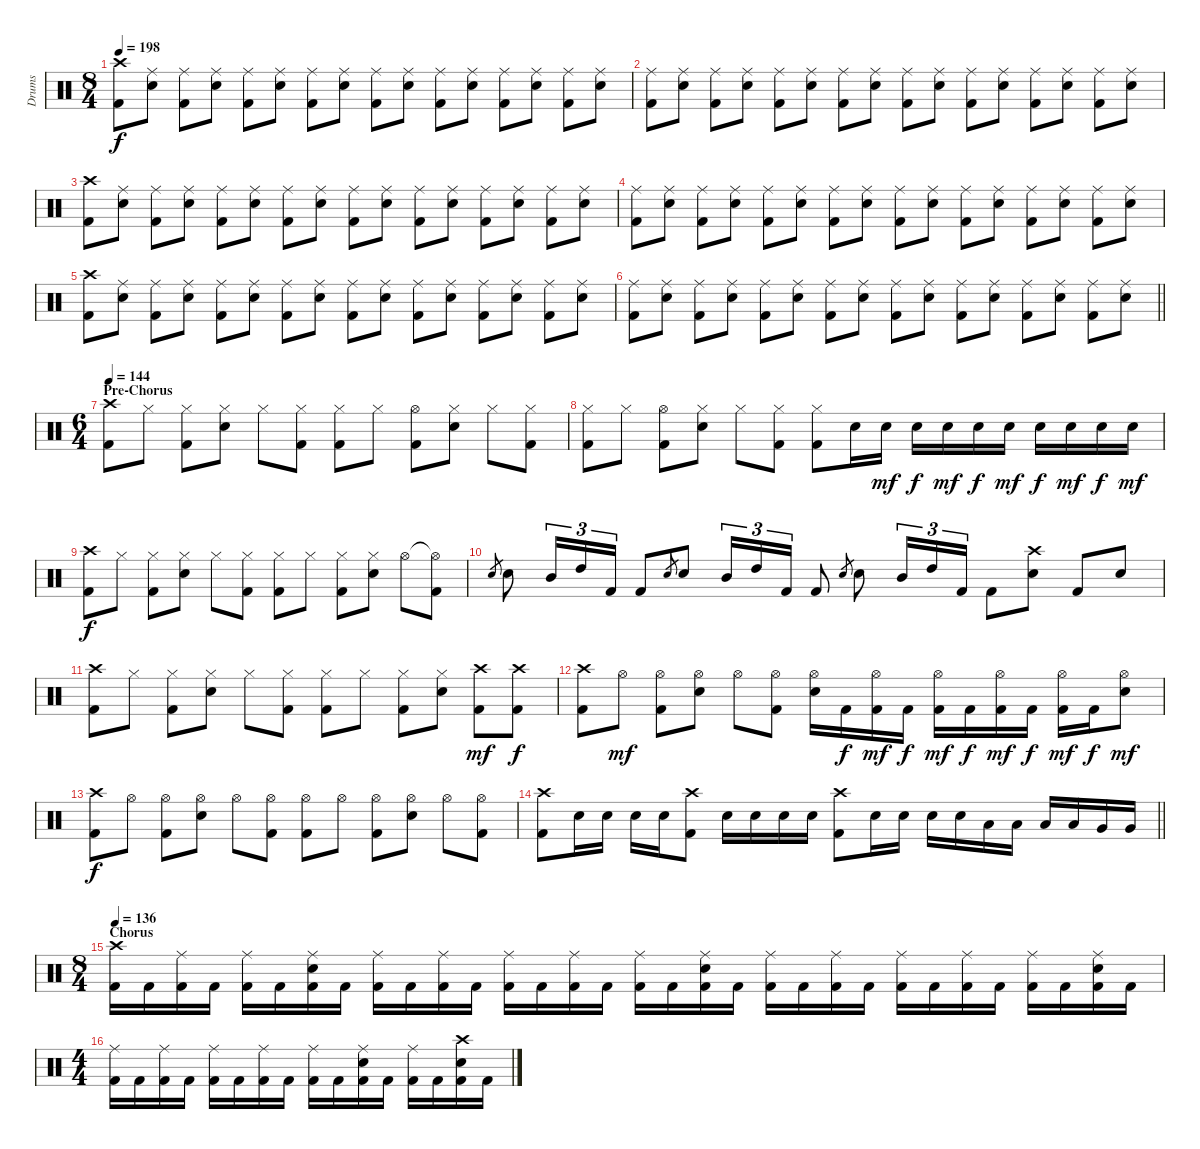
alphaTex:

\track ("Drums" "Drums") {instrument percussion}
\staff {score}
\articulation defaults
\ts (8 4)
\tempo 198
\clef neutral
\ks c
("Crash high (hit)" "Kick (hit) 2").8{dy f} ("Ride (middle)" "Snare (hit) 2").8 ("Ride (middle)" "Kick (hit) 2").8 ("Ride (middle)" "Snare (hit) 2").8 ("Ride (middle)" "Kick (hit) 2").8 ("Ride (middle)" "Snare (hit) 2").8 ("Ride (middle)" "Kick (hit) 2").8 ("Ride (middle)" "Snare (hit) 2").8 ("Ride (middle)" "Kick (hit) 2").8 ("Ride (middle)" "Snare (hit) 2").8 ("Ride (middle)" "Kick (hit) 2").8 ("Ride (middle)" "Snare (hit) 2").8 ("Ride (middle)" "Kick (hit) 2").8 ("Ride (middle)" "Snare (hit) 2").8 ("Ride (middle)" "Kick (hit) 2").8 ("Ride (middle)" "Snare (hit) 2").8 |
("Ride (middle)" "Kick (hit) 2").8 ("Ride (middle)" "Snare (hit) 2").8 ("Ride (middle)" "Kick (hit) 2").8 ("Ride (middle)" "Snare (hit) 2").8 ("Ride (middle)" "Kick (hit) 2").8 ("Ride (middle)" "Snare (hit) 2").8 ("Ride (middle)" "Kick (hit) 2").8 ("Ride (middle)" "Snare (hit) 2").8 ("Ride (middle)" "Kick (hit) 2").8 ("Ride (middle)" "Snare (hit) 2").8 ("Ride (middle)" "Kick (hit) 2").8 ("Ride (middle)" "Snare (hit) 2").8 ("Ride (middle)" "Kick (hit) 2").8 ("Ride (middle)" "Snare (hit) 2").8 ("Ride (middle)" "Kick (hit) 2").8 ("Ride (middle)" "Snare (hit) 2").8 |
("Crash high (hit)" "Kick (hit) 2").8 ("Ride (middle)" "Snare (hit) 2").8 ("Ride (middle)" "Kick (hit) 2").8 ("Ride (middle)" "Snare (hit) 2").8 ("Ride (middle)" "Kick (hit) 2").8 ("Ride (middle)" "Snare (hit) 2").8 ("Ride (middle)" "Kick (hit) 2").8 ("Ride (middle)" "Snare (hit) 2").8 ("Ride (middle)" "Kick (hit) 2").8 ("Ride (middle)" "Snare (hit) 2").8 ("Ride (middle)" "Kick (hit) 2").8 ("Ride (middle)" "Snare (hit) 2").8 ("Ride (middle)" "Kick (hit) 2").8 ("Ride (middle)" "Snare (hit) 2").8 ("Ride (middle)" "Kick (hit) 2").8 ("Ride (middle)" "Snare (hit) 2").8 |
("Ride (middle)" "Kick (hit) 2").8 ("Ride (middle)" "Snare (hit) 2").8 ("Ride (middle)" "Kick (hit) 2").8 ("Ride (middle)" "Snare (hit) 2").8 ("Ride (middle)" "Kick (hit) 2").8 ("Ride (middle)" "Snare (hit) 2").8 ("Ride (middle)" "Kick (hit) 2").8 ("Ride (middle)" "Snare (hit) 2").8 ("Ride (middle)" "Kick (hit) 2").8 ("Ride (middle)" "Snare (hit) 2").8 ("Ride (middle)" "Kick (hit) 2").8 ("Ride (middle)" "Snare (hit) 2").8 ("Ride (middle)" "Kick (hit) 2").8 ("Ride (middle)" "Snare (hit) 2").8 ("Ride (middle)" "Kick (hit) 2").8 ("Ride (middle)" "Snare (hit) 2").8 |
("Crash high (hit)" "Kick (hit) 2").8 ("Ride (middle)" "Snare (hit) 2").8 ("Ride (middle)" "Kick (hit) 2").8 ("Ride (middle)" "Snare (hit) 2").8 ("Ride (middle)" "Kick (hit) 2").8 ("Ride (middle)" "Snare (hit) 2").8 ("Ride (middle)" "Kick (hit) 2").8 ("Ride (middle)" "Snare (hit) 2").8 ("Ride (middle)" "Kick (hit) 2").8 ("Ride (middle)" "Snare (hit) 2").8 ("Ride (middle)" "Kick (hit) 2").8 ("Ride (middle)" "Snare (hit) 2").8 ("Ride (middle)" "Kick (hit) 2").8 ("Ride (middle)" "Snare (hit) 2").8 ("Ride (middle)" "Kick (hit) 2").8 ("Ride (middle)" "Snare (hit) 2").8 |
\barLineRight lightlight
("Ride (middle)" "Kick (hit) 2").8 ("Ride (middle)" "Snare (hit) 2").8 ("Ride (middle)" "Kick (hit) 2").8 ("Ride (middle)" "Snare (hit) 2").8 ("Ride (middle)" "Kick (hit) 2").8 ("Ride (middle)" "Snare (hit) 2").8 ("Ride (middle)" "Kick (hit) 2").8 ("Ride (middle)" "Snare (hit) 2").8 ("Ride (middle)" "Kick (hit) 2").8 ("Ride (middle)" "Snare (hit) 2").8 ("Ride (middle)" "Kick (hit) 2").8 ("Ride (middle)" "Snare (hit) 2").8 ("Ride (middle)" "Kick (hit) 2").8 ("Ride (middle)" "Snare (hit) 2").8 ("Ride (middle)" "Kick (hit) 2").8 ("Ride (middle)" "Snare (hit) 2").8 |
\ts (6 4)
\section ("" "Pre-Chorus")
\tempo 144
("Crash high (hit)" "Kick (hit) 2").8 "Hi-Hat (closed)".8 ("Hi-Hat (closed)" "Kick (hit) 2").8 ("Hi-Hat (closed)" "Snare (hit) 2").8 "Hi-Hat (closed)".8 ("Hi-Hat (closed)" "Kick (hit) 2").8 ("Hi-Hat (closed)" "Kick (hit) 2").8 "Hi-Hat (closed)".8 ("Hi-Hat (open)" "Kick (hit) 2").8 ("Hi-Hat (closed)" "Snare (hit) 2").8 "Hi-Hat (closed)".8 ("Hi-Hat (closed)" "Kick (hit) 2").8 |
("Hi-Hat (closed)" "Kick (hit) 2").8 "Hi-Hat (closed)".8 ("Hi-Hat (open)" "Kick (hit) 2").8 ("Hi-Hat (closed)" "Snare (hit) 2").8 "Hi-Hat (closed)".8 ("Hi-Hat (closed)" "Kick (hit) 2").8 ("Hi-Hat (closed)" "Kick (hit) 2").8 "Snare (hit) 2".16 "Snare (hit) 2".16{dy mf} "Snare (hit) 2".16{dy f} "Snare (hit) 2".16{dy mf} "Snare (hit) 2".16{dy f} "Snare (hit) 2".16{dy mf} "Snare (hit) 2".16{dy f} "Snare (hit) 2".16{dy mf} "Snare (hit) 2".16{dy f} "Snare (hit) 2".16{dy mf} |
("Crash high (hit)" "Kick (hit) 2").8{dy f} "Hi-Hat (closed)".8 ("Hi-Hat (closed)" "Kick (hit) 2").8 ("Hi-Hat (closed)" "Snare (hit) 2").8 "Hi-Hat (closed)".8 ("Hi-Hat (closed)" "Kick (hit) 2").8 ("Hi-Hat (closed)" "Kick (hit) 2").8 "Hi-Hat (closed)".8 ("Hi-Hat (closed)" "Kick (hit) 2").8 ("Hi-Hat (closed)" "Snare (hit) 2").8 "Hi-Hat (open)".8 ("Hi-Hat (open)"{t} "Kick (hit) 2").8 |
"Snare (hit) 2".8{gr} "Snare (hit) 2".8 "Mid Tom (hit)".16{tu (3 2)} "High Tom (hit)".16{tu (3 2)} "Kick (hit) 2".16{tu (3 2)} "Kick (hit) 2".8 "Snare (hit) 2".8{gr} "Snare (hit) 2".8 "Mid Tom (hit)".16{tu (3 2)} "High Tom (hit)".16{tu (3 2)} "Kick (hit) 2".16{tu (3 2)} "Kick (hit) 2".8 "Snare (hit) 2".8{gr} "Snare (hit) 2".8 "Mid Tom (hit)".16{tu (3 2)} "High Tom (hit)".16{tu (3 2)} "Kick (hit) 2".16{tu (3 2)} "Kick (hit) 2".8 ("Crash high (hit)" "Snare (hit) 2").8 "Kick (hit) 2".8 "Snare (hit) 2".8 |
("Crash high (hit)" "Kick (hit) 2").8 "Hi-Hat (closed)".8 ("Hi-Hat (closed)" "Kick (hit) 2").8 ("Hi-Hat (closed)" "Snare (hit) 2").8 "Hi-Hat (closed)".8 ("Hi-Hat (closed)" "Kick (hit) 2").8 ("Hi-Hat (closed)" "Kick (hit) 2").8 "Hi-Hat (closed)".8 ("Hi-Hat (closed)" "Kick (hit) 2").8 ("Hi-Hat (closed)" "Snare (hit) 2").8 ("Crash high (hit)" "Kick (hit) 2").8{dy mf} ("Crash high (hit)" "Kick (hit) 2").8{dy f} |
("Crash high (hit)" "Kick (hit) 2").8 "Hi-Hat (open)".8{dy mf} ("Hi-Hat (open)" "Kick (hit) 2").8 ("Hi-Hat (open)" "Snare (hit) 2").8 "Hi-Hat (open)".8 ("Hi-Hat (open)" "Kick (hit) 2").8 ("Hi-Hat (open)" "Snare (hit) 2").16 "Kick (hit) 2".16{dy f} ("Hi-Hat (open)" "Kick (hit) 2").16{dy mf} "Kick (hit) 2".16{dy f} ("Hi-Hat (open)" "Kick (hit) 2").16{dy mf} "Kick (hit) 2".16{dy f} ("Hi-Hat (open)" "Kick (hit) 2").16{dy mf} "Kick (hit) 2".16{dy f} ("Hi-Hat (open)" "Kick (hit) 2").16{dy mf} "Kick (hit) 2".16{dy f} ("Hi-Hat (open)" "Snare (hit) 2").8{dy mf} |
("Crash high (hit)" "Kick (hit) 2").8{dy f} "Hi-Hat (open)".8 ("Hi-Hat (open)" "Kick (hit) 2").8 ("Hi-Hat (open)" "Snare (hit) 2").8 "Hi-Hat (open)".8 ("Hi-Hat (open)" "Kick (hit) 2").8 ("Hi-Hat (open)" "Kick (hit) 2").8 "Hi-Hat (open)".8 ("Hi-Hat (open)" "Kick (hit) 2").8 ("Hi-Hat (open)" "Snare (hit) 2").8 "Hi-Hat (open)".8 ("Hi-Hat (open)" "Kick (hit) 2").8 |
\barLineRight lightlight
("Crash high (hit)" "Kick (hit) 2").8 "Snare (hit) 2".16 "Snare (hit) 2".16 "Snare (hit) 2".16 "Snare (hit) 2".16 ("Crash high (hit)" "Kick (hit) 2").8 "Snare (hit) 2".16 "Snare (hit) 2".16 "Snare (hit) 2".16 "Snare (hit) 2".16 ("Crash high (hit)" "Kick (hit) 2").8 "Snare (hit) 2".16 "Snare (hit) 2".16 "Snare (hit) 2".16 "Snare (hit) 2".16 "Low Tom (hit)".16 "Low Tom (hit)".16 "Low Tom (hit)".16 "Low Tom (hit)".16 "Very Low Tom (hit)".16 "Very Low Tom (hit)".16 |
\ts (8 4)
\section ("" "Chorus")
\tempo 136
("Crash high (hit)" "Kick (hit) 2").16 "Kick (hit) 2".16 ("Ride (middle)" "Kick (hit) 2").16 "Kick (hit) 2".16 ("Ride (middle)" "Kick (hit) 2").16 "Kick (hit) 2".16 ("Ride (middle)" "Snare (hit) 2" "Kick (hit) 2").16 "Kick (hit) 2".16 ("Ride (middle)" "Kick (hit) 2").16 "Kick (hit) 2".16 ("Ride (middle)" "Kick (hit) 2").16 "Kick (hit) 2".16 ("Ride (middle)" "Kick (hit) 2").16 "Kick (hit) 2".16 ("Ride (middle)" "Kick (hit) 2").16 "Kick (hit) 2".16 ("Ride (middle)" "Kick (hit) 2").16 "Kick (hit) 2".16 ("Ride (middle)" "Snare (hit) 2" "Kick (hit) 2").16 "Kick (hit) 2".16 ("Ride (middle)" "Kick (hit) 2").16 "Kick (hit) 2".16 ("Ride (middle)" "Kick (hit) 2").16 "Kick (hit) 2".16 ("Ride (middle)" "Kick (hit) 2").16 "Kick (hit) 2".16 ("Ride (middle)" "Kick (hit) 2").16 "Kick (hit) 2".16 ("Ride (middle)" "Kick (hit) 2").16 "Kick (hit) 2".16 ("Ride (middle)" "Snare (hit) 2" "Kick (hit) 2").16 "Kick (hit) 2".16 |
\ts (4 4)
("Ride (middle)" "Kick (hit) 2").16 "Kick (hit) 2".16 ("Ride (middle)" "Kick (hit) 2").16 "Kick (hit) 2".16 ("Ride (middle)" "Kick (hit) 2").16 "Kick (hit) 2".16 ("Ride (middle)" "Kick (hit) 2").16 "Kick (hit) 2".16 ("Ride (middle)" "Kick (hit) 2").16 "Kick (hit) 2".16 ("Ride (middle)" "Snare (hit) 2" "Kick (hit) 2").16 "Kick (hit) 2".16 ("Ride (middle)" "Kick (hit) 2").16 "Kick (hit) 2".16 ("Crash high (hit)" "Snare (hit) 2" "Kick (hit) 2").16 "Kick (hit) 2".16
